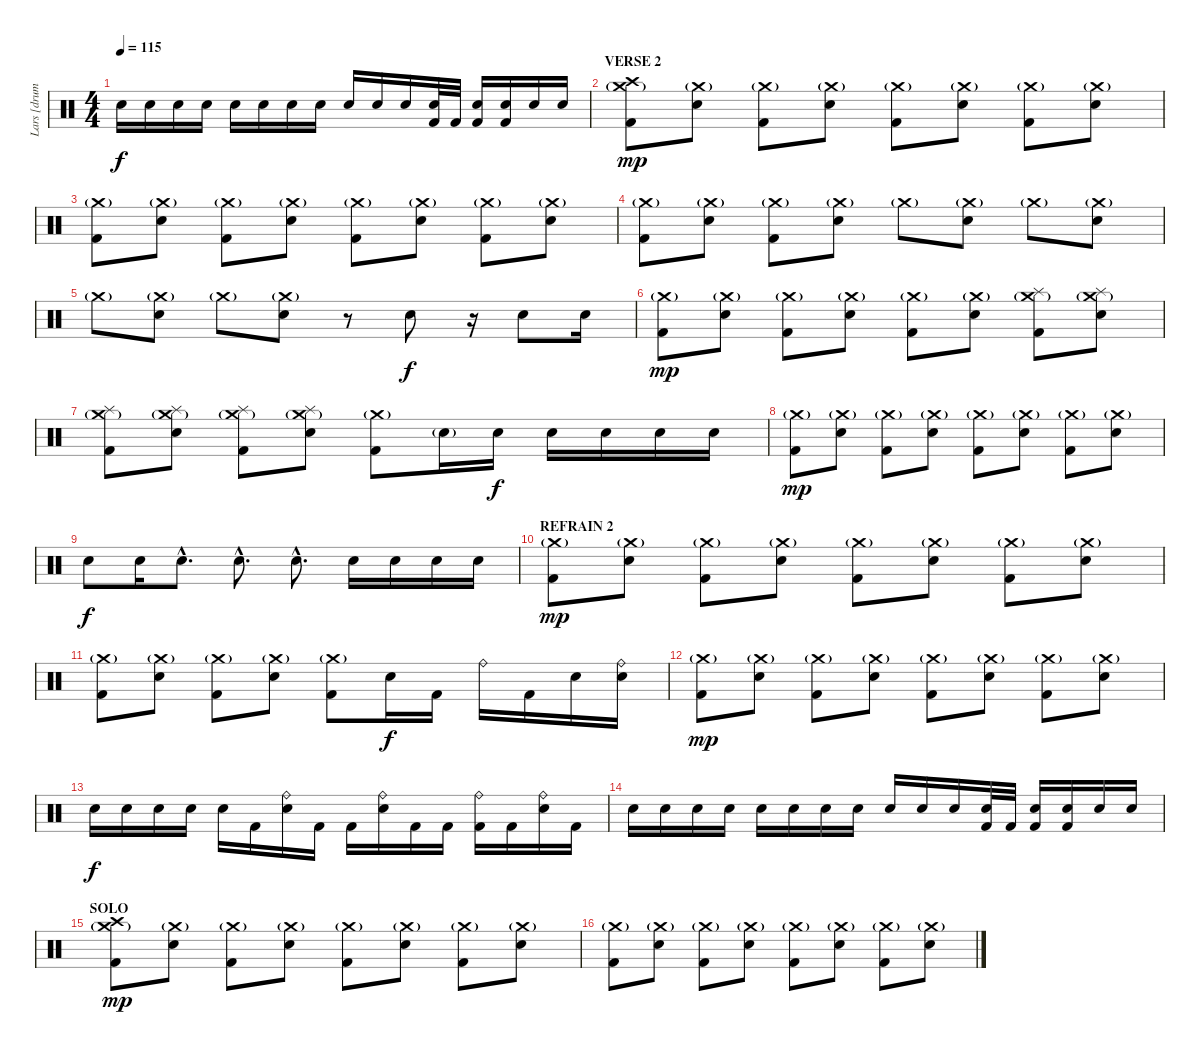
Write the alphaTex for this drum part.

\track ("Lars [drums]" "Lars [drum") {instrument percussion}
\staff {score}
\articulation defaults
\ts (4 4)
\tempo 115
\clef neutral
\ks c "Snare (hit) 2".16{dy f} "Snare (hit) 2".16 "Snare (hit) 2".16 "Snare (hit) 2".16 "Snare (hit) 2".16 "Snare (hit) 2".16 "Snare (hit) 2".16 "Snare (hit) 2".16 "Snare (hit) 2".16 "Snare (hit) 2".16 "Snare (hit) 2".16
("Snare (hit) 2" "Kick (hit) 2").32 "Kick (hit) 2".32 ("Snare (hit) 2" "Kick (hit) 2").16 ("Snare (hit) 2" "Kick (hit) 2").16 "Snare (hit) 2".16 "Snare (hit) 2".16 |
\section ("" "VERSE 2")
("Kick (hit) 2" "Crash high (hit)" "Crash medium (hit)"{g}).8{dy mp} ("Snare (hit) 2" "Crash medium (hit)"{g}).8 ("Kick (hit) 2" "Crash medium (hit)"{g}).8 ("Snare (hit) 2" "Crash medium (hit)"{g}).8 ("Kick (hit) 2" "Crash medium (hit)"{g}).8 ("Snare (hit) 2" "Crash medium (hit)"{g}).8 ("Kick (hit) 2" "Crash medium (hit)"{g}).8 ("Snare (hit) 2" "Crash medium (hit)"{g}).8 |
("Kick (hit) 2" "Crash medium (hit)"{g}).8 ("Snare (hit) 2" "Crash medium (hit)"{g}).8 ("Kick (hit) 2" "Crash medium (hit)"{g}).8 ("Snare (hit) 2" "Crash medium (hit)"{g}).8 ("Kick (hit) 2" "Crash medium (hit)"{g}).8 ("Snare (hit) 2" "Crash medium (hit)"{g}).8 ("Kick (hit) 2" "Crash medium (hit)"{g}).8 ("Snare (hit) 2" "Crash medium (hit)"{g}).8 |
("Kick (hit) 2" "Crash medium (hit)"{g}).8 ("Snare (hit) 2" "Crash medium (hit)"{g}).8 ("Kick (hit) 2" "Crash medium (hit)"{g}).8 ("Snare (hit) 2" "Crash medium (hit)"{g}).8 "Crash medium (hit)"{g}.8 ("Snare (hit) 2" "Crash medium (hit)"{g}).8 "Crash medium (hit)"{g}.8 ("Snare (hit) 2" "Crash medium (hit)"{g}).8 |
"Crash medium (hit)"{g}.8 ("Snare (hit) 2" "Crash medium (hit)"{g}).8 "Crash medium (hit)"{g}.8 ("Snare (hit) 2" "Crash medium (hit)"{g}).8 r.8 "Snare (hit) 2".8{dy f} r.16 "Snare (hit) 2".8 "Snare (hit) 2".16 |
("Kick (hit) 2" "Crash medium (hit)"{g}).8{dy mp} ("Snare (hit) 2" "Crash medium (hit)"{g}).8 ("Kick (hit) 2" "Crash medium (hit)"{g}).8 ("Snare (hit) 2" "Crash medium (hit)"{g}).8 ("Kick (hit) 2" "Crash medium (hit)"{g}).8 ("Snare (hit) 2" "Crash medium (hit)"{g}).8 ("Kick (hit) 2" "Splash (hit)" "Crash medium (hit)"{g}).8 ("Snare (hit) 2" "Splash (hit)" "Crash medium (hit)"{g}).8 |
("Kick (hit) 2" "Splash (hit)" "Crash medium (hit)"{g}).8 ("Snare (hit) 2" "Splash (hit)" "Crash medium (hit)"{g}).8 ("Kick (hit) 2" "Splash (hit)" "Crash medium (hit)"{g}).8 ("Snare (hit) 2" "Splash (hit)" "Crash medium (hit)"{g}).8 ("Kick (hit) 2" "Crash medium (hit)"{g}).8 "Snare (hit) 2"{g}.16 "Snare (hit) 2".16{dy f} "Snare (hit) 2".16 "Snare (hit) 2".16 "Snare (hit) 2".16 "Snare (hit) 2".16 |
("Kick (hit) 2" "Crash medium (hit)"{g}).8{dy mp} ("Snare (hit) 2" "Crash medium (hit)"{g}).8 ("Kick (hit) 2" "Crash medium (hit)"{g}).8 ("Snare (hit) 2" "Crash medium (hit)"{g}).8 ("Kick (hit) 2" "Crash medium (hit)"{g}).8 ("Snare (hit) 2" "Crash medium (hit)"{g}).8 ("Kick (hit) 2" "Crash medium (hit)"{g}).8 ("Snare (hit) 2" "Crash medium (hit)"{g}).8 |
"Snare (hit) 2".8{dy f} "Snare (hit) 2".16 "Snare (hit) 2"{hac}.8{d} "Snare (hit) 2"{hac}.8{d} "Snare (hit) 2"{hac}.8{d} "Snare (hit) 2".16 "Snare (hit) 2".16 "Snare (hit) 2".16 "Snare (hit) 2".16 |
\section ("" "REFRAIN 2")
("Kick (hit) 2" "Crash medium (hit)"{g}).8{dy mp} ("Snare (hit) 2" "Crash medium (hit)"{g}).8 ("Kick (hit) 2" "Crash medium (hit)"{g}).8 ("Snare (hit) 2" "Crash medium (hit)"{g}).8 ("Kick (hit) 2" "Crash medium (hit)"{g}).8 ("Snare (hit) 2" "Crash medium (hit)"{g}).8 ("Kick (hit) 2" "Crash medium (hit)"{g}).8 ("Snare (hit) 2" "Crash medium (hit)"{g}).8 |
("Kick (hit) 2" "Crash medium (hit)"{g}).8 ("Snare (hit) 2" "Crash medium (hit)"{g}).8 ("Kick (hit) 2" "Crash medium (hit)"{g}).8 ("Snare (hit) 2" "Crash medium (hit)"{g}).8 ("Kick (hit) 2" "Crash medium (hit)"{g}).8 "Snare (hit) 2".16{dy f} "Kick (hit) 2".16 "Ride (bell)".16 "Kick (hit) 2".16 "Snare (hit) 2".16 ("Snare (hit) 2" "Ride (bell)").16 |
("Kick (hit) 2" "Crash medium (hit)"{g}).8{dy mp} ("Snare (hit) 2" "Crash medium (hit)"{g}).8 ("Kick (hit) 2" "Crash medium (hit)"{g}).8 ("Snare (hit) 2" "Crash medium (hit)"{g}).8 ("Kick (hit) 2" "Crash medium (hit)"{g}).8 ("Snare (hit) 2" "Crash medium (hit)"{g}).8 ("Kick (hit) 2" "Crash medium (hit)"{g}).8 ("Snare (hit) 2" "Crash medium (hit)"{g}).8 |
"Snare (hit) 2".16{dy f} "Snare (hit) 2".16 "Snare (hit) 2".16 "Snare (hit) 2".16 "Snare (hit) 2".16 "Kick (hit) 2".16 ("Snare (hit) 2" "Ride (bell)").16 "Kick (hit) 2".16 "Kick (hit) 2".16 ("Snare (hit) 2" "Ride (bell)").16 "Kick (hit) 2".16 "Kick (hit) 2".16 ("Kick (hit) 2" "Ride (bell)").16 "Kick (hit) 2".16 ("Snare (hit) 2" "Ride (bell)").16 "Kick (hit) 2".16 |
"Snare (hit) 2".16 "Snare (hit) 2".16 "Snare (hit) 2".16 "Snare (hit) 2".16 "Snare (hit) 2".16 "Snare (hit) 2".16 "Snare (hit) 2".16 "Snare (hit) 2".16 "Snare (hit) 2".16 "Snare (hit) 2".16 "Snare (hit) 2".16 ("Snare (hit) 2" "Kick (hit) 2").32 "Kick (hit) 2".32 ("Snare (hit) 2" "Kick (hit) 2").16 ("Snare (hit) 2" "Kick (hit) 2").16 "Snare (hit) 2".16 "Snare (hit) 2".16 |
\section ("" "SOLO")
("Kick (hit) 2" "Crash high (hit)" "Crash medium (hit)"{g}).8{dy mp} ("Snare (hit) 2" "Crash medium (hit)"{g}).8 ("Kick (hit) 2" "Crash medium (hit)"{g}).8 ("Snare (hit) 2" "Crash medium (hit)"{g}).8 ("Kick (hit) 2" "Crash medium (hit)"{g}).8 ("Snare (hit) 2" "Crash medium (hit)"{g}).8 ("Kick (hit) 2" "Crash medium (hit)"{g}).8 ("Snare (hit) 2" "Crash medium (hit)"{g}).8 |
("Kick (hit) 2" "Crash medium (hit)"{g}).8 ("Snare (hit) 2" "Crash medium (hit)"{g}).8 ("Kick (hit) 2" "Crash medium (hit)"{g}).8 ("Snare (hit) 2" "Crash medium (hit)"{g}).8 ("Kick (hit) 2" "Crash medium (hit)"{g}).8 ("Snare (hit) 2" "Crash medium (hit)"{g}).8 ("Kick (hit) 2" "Crash medium (hit)"{g}).8 ("Snare (hit) 2" "Crash medium (hit)"{g}).8
